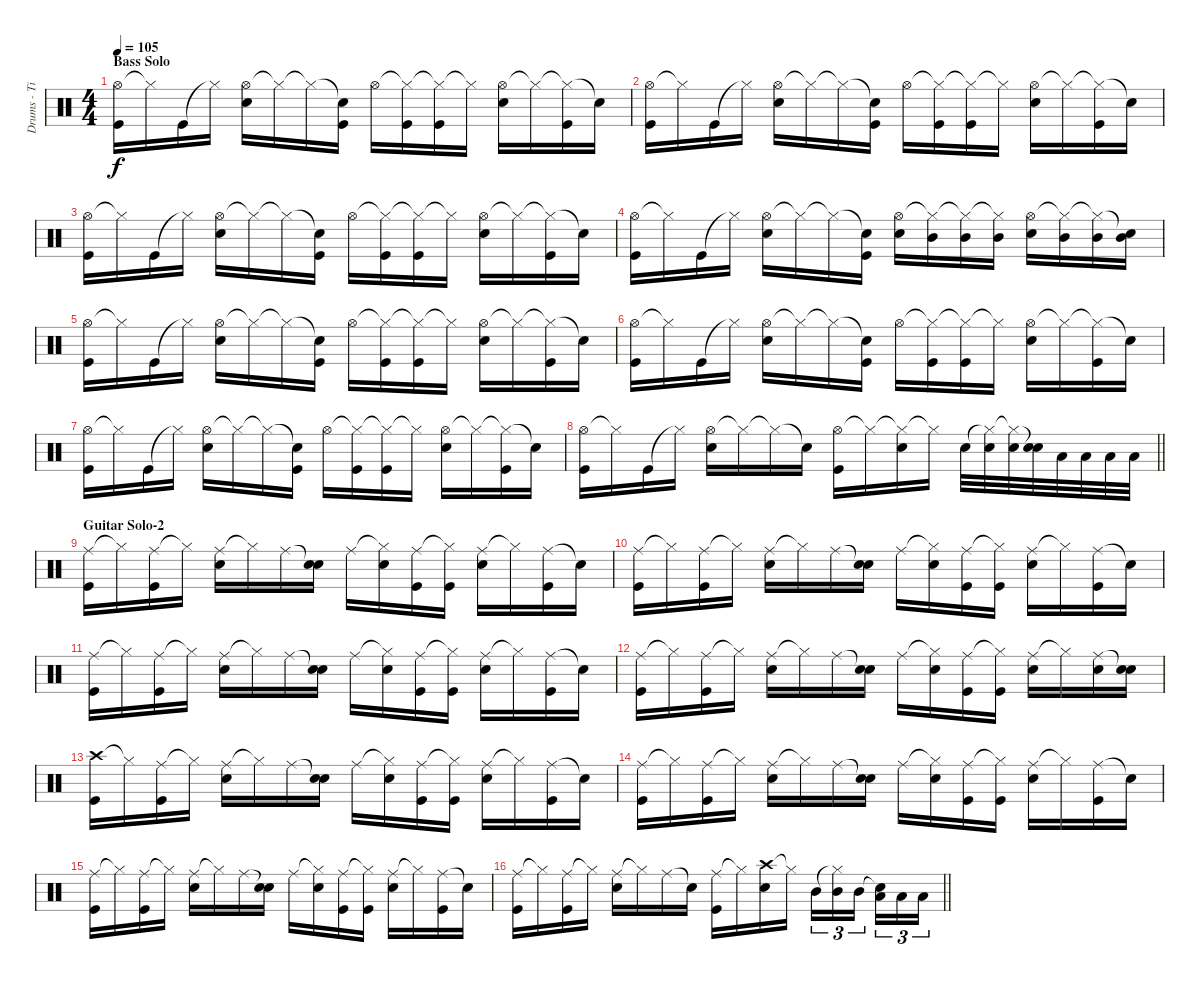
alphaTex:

\track ("Drums - Tipu" "Drums - Ti") {instrument percussion}
\staff {score}
\articulation defaults
\ts (4 4)
\section ("" "Bass Solo")
\tempo 105
\clef neutral
\ks c
("Hi-Hat (open)" "Kick (hit)").16{dy f} "Hi-Hat (closed)"{t}.16 "Kick (hit)".16 "Hi-Hat (closed)"{t}.16 ("Hi-Hat (open)" "Electric Snare (hit)").16 "Hi-Hat (closed)"{t}.16 "Hi-Hat (closed)"{t}.16 ("Snare (hit)"{t} "Kick (hit)").16 "Hi-Hat (open)".16 ("Hi-Hat (closed)"{t} "Kick (hit)").16 ("Hi-Hat (closed)"{t} "Kick (hit)").16 "Hi-Hat (closed)"{t}.16 ("Hi-Hat (open)" "Electric Snare (hit)").16 "Hi-Hat (closed)"{t}.16 ("Hi-Hat (closed)"{t} "Kick (hit)").16 "Snare (hit)"{t}.16 |
("Hi-Hat (open)" "Kick (hit)").16 "Hi-Hat (closed)"{t}.16 "Kick (hit)".16 "Hi-Hat (closed)"{t}.16 ("Hi-Hat (open)" "Electric Snare (hit)").16 "Hi-Hat (closed)"{t}.16 "Hi-Hat (closed)"{t}.16 ("Snare (hit)"{t} "Kick (hit)").16 "Hi-Hat (open)".16 ("Hi-Hat (closed)"{t} "Kick (hit)").16 ("Hi-Hat (closed)"{t} "Kick (hit)").16 "Hi-Hat (closed)"{t}.16 ("Hi-Hat (open)" "Electric Snare (hit)").16 "Hi-Hat (closed)"{t}.16 ("Hi-Hat (closed)"{t} "Kick (hit)").16 "Snare (hit)"{t}.16 |
("Hi-Hat (open)" "Kick (hit)").16 "Hi-Hat (closed)"{t}.16 "Kick (hit)".16 "Hi-Hat (closed)"{t}.16 ("Hi-Hat (open)" "Electric Snare (hit)").16 "Hi-Hat (closed)"{t}.16 "Hi-Hat (closed)"{t}.16 ("Snare (hit)"{t} "Kick (hit)").16 "Hi-Hat (open)".16 ("Hi-Hat (closed)"{t} "Kick (hit)").16 ("Hi-Hat (closed)"{t} "Kick (hit)").16 "Hi-Hat (closed)"{t}.16 ("Hi-Hat (open)" "Electric Snare (hit)").16 "Hi-Hat (closed)"{t}.16 ("Hi-Hat (closed)"{t} "Kick (hit)").16 "Snare (hit)"{t}.16 |
("Hi-Hat (open)" "Kick (hit)").16 "Hi-Hat (closed)"{t}.16 "Kick (hit)".16 "Hi-Hat (closed)"{t}.16 ("Hi-Hat (open)" "Electric Snare (hit)").16 "Hi-Hat (closed)"{t}.16 "Hi-Hat (closed)"{t}.16 ("Snare (hit)"{t} "Kick (hit)").16 ("Hi-Hat (open)" "Electric Snare (hit)").16 ("Hi-Hat (closed)"{t} "Mid Tom (hit)").16 ("Hi-Hat (closed)"{t} "Mid Tom (hit)").16 ("Hi-Hat (closed)"{t} "Mid Tom (hit)").16 ("Hi-Hat (open)" "Electric Snare (hit)").16 ("Hi-Hat (closed)"{t} "Mid Tom (hit)").16 ("Hi-Hat (closed)"{t} "Mid Tom (hit)").16 ("Snare (hit)"{t} "Mid Tom (hit)").16 |
("Hi-Hat (open)" "Kick (hit)").16 "Hi-Hat (closed)"{t}.16 "Kick (hit)".16 "Hi-Hat (closed)"{t}.16 ("Hi-Hat (open)" "Electric Snare (hit)").16 "Hi-Hat (closed)"{t}.16 "Hi-Hat (closed)"{t}.16 ("Snare (hit)"{t} "Kick (hit)").16 "Hi-Hat (open)".16 ("Hi-Hat (closed)"{t} "Kick (hit)").16 ("Hi-Hat (closed)"{t} "Kick (hit)").16 "Hi-Hat (closed)"{t}.16 ("Hi-Hat (open)" "Electric Snare (hit)").16 "Hi-Hat (closed)"{t}.16 ("Hi-Hat (closed)"{t} "Kick (hit)").16 "Snare (hit)"{t}.16 |
("Hi-Hat (open)" "Kick (hit)").16 "Hi-Hat (closed)"{t}.16 "Kick (hit)".16 "Hi-Hat (closed)"{t}.16 ("Hi-Hat (open)" "Electric Snare (hit)").16 "Hi-Hat (closed)"{t}.16 "Hi-Hat (closed)"{t}.16 ("Snare (hit)"{t} "Kick (hit)").16 "Hi-Hat (open)".16 ("Hi-Hat (closed)"{t} "Kick (hit)").16 ("Hi-Hat (closed)"{t} "Kick (hit)").16 "Hi-Hat (closed)"{t}.16 ("Hi-Hat (open)" "Electric Snare (hit)").16 "Hi-Hat (closed)"{t}.16 ("Hi-Hat (closed)"{t} "Kick (hit)").16 "Snare (hit)"{t}.16 |
("Hi-Hat (open)" "Kick (hit)").16 "Hi-Hat (closed)"{t}.16 "Kick (hit)".16 "Hi-Hat (closed)"{t}.16 ("Hi-Hat (open)" "Electric Snare (hit)").16 "Hi-Hat (closed)"{t}.16 "Hi-Hat (closed)"{t}.16 ("Snare (hit)"{t} "Kick (hit)").16 "Hi-Hat (open)".16 ("Hi-Hat (closed)"{t} "Kick (hit)").16 ("Hi-Hat (closed)"{t} "Kick (hit)").16 "Hi-Hat (closed)"{t}.16 ("Hi-Hat (open)" "Electric Snare (hit)").16 "Hi-Hat (closed)"{t}.16 ("Hi-Hat (closed)"{t} "Kick (hit)").16 "Snare (hit)"{t}.16 |
\barLineRight lightlight
("Hi-Hat (open)" "Kick (hit)").16 "Hi-Hat (closed)"{t}.16 "Kick (hit)".16 "Hi-Hat (closed)"{t}.16 ("Hi-Hat (open)" "Electric Snare (hit)").16 "Hi-Hat (closed)"{t}.16 "Hi-Hat (closed)"{t}.16 "Snare (hit)"{t}.16 ("Hi-Hat (open)" "Kick (hit)").16 "Hi-Hat (closed)"{t}.16 ("Hi-Hat (closed)"{t} "Electric Snare (hit)").16 "Hi-Hat (closed)"{t}.16 "Electric Snare (hit)".32 ("Hi-Hat (closed)"{t} "Electric Snare (hit)").32 ("Hi-Hat (closed)"{t} "Electric Snare (hit)").32 ("Snare (hit)"{t} "Electric Snare (hit)").32 "Low Tom (hit)".32 "Low Tom (hit)".32 "Low Tom (hit)".32 "Low Tom (hit)".32 |
\section ("" "Guitar Solo-2")
("Ride (middle)" "Kick (hit)").16 "Hi-Hat (closed)"{t}.16 ("Ride (middle)" "Kick (hit)").16 "Hi-Hat (closed)"{t}.16 ("Ride (middle)" "Electric Snare (hit)").16 "Hi-Hat (closed)"{t}.16 "Ride (middle)".16 ("Snare (hit)"{t} "Electric Snare (hit)").16 "Ride (middle)".16 ("Hi-Hat (closed)"{t} "Electric Snare (hit)").16 ("Ride (middle)" "Kick (hit)").16 ("Hi-Hat (closed)"{t} "Kick (hit)").16 ("Ride (middle)" "Electric Snare (hit)").16 "Hi-Hat (closed)"{t}.16 ("Ride (middle)" "Kick (hit)").16 "Snare (hit)"{t}.16 |
("Ride (middle)" "Kick (hit)").16 "Hi-Hat (closed)"{t}.16 ("Ride (middle)" "Kick (hit)").16 "Hi-Hat (closed)"{t}.16 ("Ride (middle)" "Electric Snare (hit)").16 "Hi-Hat (closed)"{t}.16 "Ride (middle)".16 ("Snare (hit)"{t} "Electric Snare (hit)").16 "Ride (middle)".16 ("Hi-Hat (closed)"{t} "Electric Snare (hit)").16 ("Ride (middle)" "Kick (hit)").16 ("Hi-Hat (closed)"{t} "Kick (hit)").16 ("Ride (middle)" "Electric Snare (hit)").16 "Hi-Hat (closed)"{t}.16 ("Ride (middle)" "Kick (hit)").16 "Snare (hit)"{t}.16 |
("Ride (middle)" "Kick (hit)").16 "Hi-Hat (closed)"{t}.16 ("Ride (middle)" "Kick (hit)").16 "Hi-Hat (closed)"{t}.16 ("Ride (middle)" "Electric Snare (hit)").16 "Hi-Hat (closed)"{t}.16 "Ride (middle)".16 ("Snare (hit)"{t} "Electric Snare (hit)").16 "Ride (middle)".16 ("Hi-Hat (closed)"{t} "Electric Snare (hit)").16 ("Ride (middle)" "Kick (hit)").16 ("Hi-Hat (closed)"{t} "Kick (hit)").16 ("Ride (middle)" "Electric Snare (hit)").16 "Hi-Hat (closed)"{t}.16 ("Ride (middle)" "Kick (hit)").16 "Snare (hit)"{t}.16 |
("Ride (middle)" "Kick (hit)").16 "Hi-Hat (closed)"{t}.16 ("Ride (middle)" "Kick (hit)").16 "Hi-Hat (closed)"{t}.16 ("Ride (middle)" "Electric Snare (hit)").16 "Hi-Hat (closed)"{t}.16 "Ride (middle)".16 ("Snare (hit)"{t} "Electric Snare (hit)").16 "Ride (middle)".16 ("Hi-Hat (closed)"{t} "Electric Snare (hit)").16 ("Ride (middle)" "Kick (hit)").16 ("Hi-Hat (closed)"{t} "Kick (hit)").16 ("Ride (middle)" "Electric Snare (hit)").16 "Hi-Hat (closed)"{t}.16 ("Ride (middle)" "Electric Snare (hit)").16 ("Snare (hit)"{t} "Electric Snare (hit)").16 |
("Crash high (hit)" "Kick (hit)").16 "Hi-Hat (closed)"{t}.16 ("Ride (middle)" "Kick (hit)").16 "Hi-Hat (closed)"{t}.16 ("Ride (middle)" "Electric Snare (hit)").16 "Hi-Hat (closed)"{t}.16 "Ride (middle)".16 ("Snare (hit)"{t} "Electric Snare (hit)").16 "Ride (middle)".16 ("Hi-Hat (closed)"{t} "Electric Snare (hit)").16 ("Ride (middle)" "Kick (hit)").16 ("Hi-Hat (closed)"{t} "Kick (hit)").16 ("Ride (middle)" "Electric Snare (hit)").16 "Hi-Hat (closed)"{t}.16 ("Ride (middle)" "Kick (hit)").16 "Snare (hit)"{t}.16 |
("Ride (middle)" "Kick (hit)").16 "Hi-Hat (closed)"{t}.16 ("Ride (middle)" "Kick (hit)").16 "Hi-Hat (closed)"{t}.16 ("Ride (middle)" "Electric Snare (hit)").16 "Hi-Hat (closed)"{t}.16 "Ride (middle)".16 ("Snare (hit)"{t} "Electric Snare (hit)").16 "Ride (middle)".16 ("Hi-Hat (closed)"{t} "Electric Snare (hit)").16 ("Ride (middle)" "Kick (hit)").16 ("Hi-Hat (closed)"{t} "Kick (hit)").16 ("Ride (middle)" "Electric Snare (hit)").16 "Hi-Hat (closed)"{t}.16 ("Ride (middle)" "Kick (hit)").16 "Snare (hit)"{t}.16 |
("Ride (middle)" "Kick (hit)").16 "Hi-Hat (closed)"{t}.16 ("Ride (middle)" "Kick (hit)").16 "Hi-Hat (closed)"{t}.16 ("Ride (middle)" "Electric Snare (hit)").16 "Hi-Hat (closed)"{t}.16 "Ride (middle)".16 ("Snare (hit)"{t} "Electric Snare (hit)").16 "Ride (middle)".16 ("Hi-Hat (closed)"{t} "Electric Snare (hit)").16 ("Ride (middle)" "Kick (hit)").16 ("Hi-Hat (closed)"{t} "Kick (hit)").16 ("Ride (middle)" "Electric Snare (hit)").16 "Hi-Hat (closed)"{t}.16 ("Ride (middle)" "Kick (hit)").16 "Snare (hit)"{t}.16 |
\barLineRight lightlight
("Ride (middle)" "Kick (hit)").16 "Hi-Hat (closed)"{t}.16 ("Ride (middle)" "Kick (hit)").16 "Hi-Hat (closed)"{t}.16 ("Ride (middle)" "Electric Snare (hit)").16 "Hi-Hat (closed)"{t}.16 "Ride (middle)".16 "Snare (hit)"{t}.16 ("Ride (middle)" "Kick (hit)").16 "Hi-Hat (closed)"{t}.16 ("Crash high (hit)" "Electric Snare (hit)").16 "Hi-Hat (closed)"{t}.16 "Mid Tom (hit)".16{tu (3 2)} ("Hi-Hat (closed)"{t} "Mid Tom (hit)").16{tu (3 2)} "Mid Tom (hit)".16{tu (3 2)} ("Snare (hit)"{t} "Low Tom (hit)").16{tu (3 2)} "Low Tom (hit)".16{tu (3 2)} "Low Tom (hit)".16{tu (3 2)}
